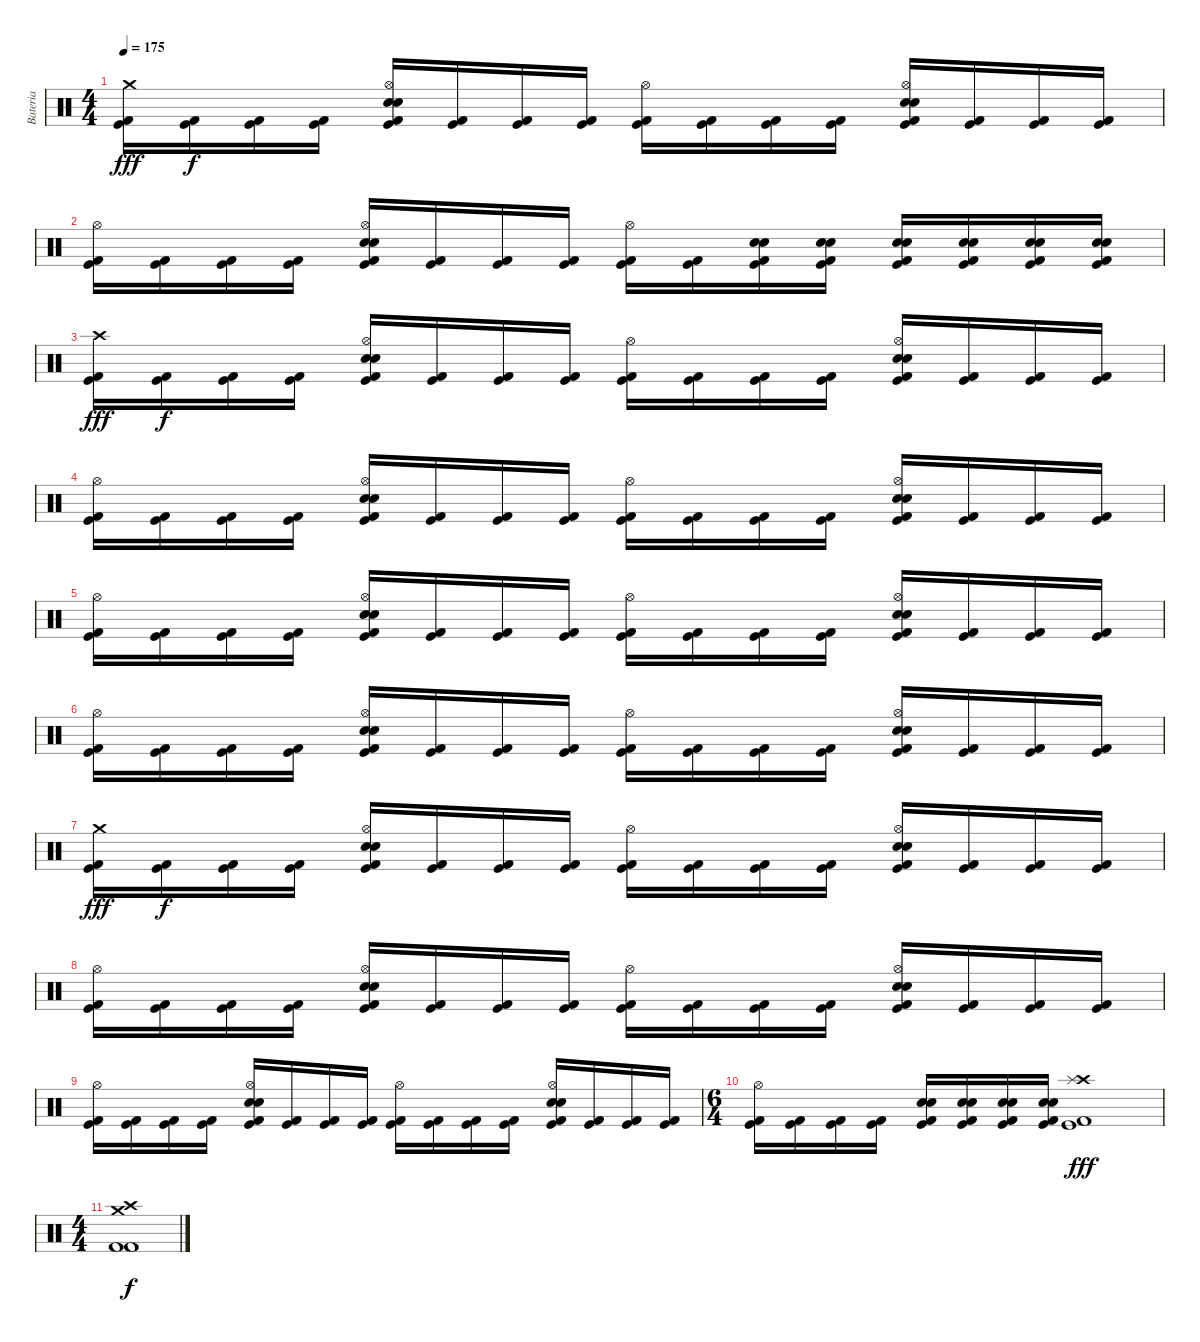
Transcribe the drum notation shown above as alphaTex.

\track ("Bateria" "Bateria") {instrument percussion}
\staff {score}
\articulation defaults
\ts (4 4)
\tempo 175
\clef neutral
\ks c
("Crash medium (hit)" "Kick (hit) 2" "Kick (hit)").16{dy fff} ("Kick (hit) 2" "Kick (hit)").16{dy f} ("Kick (hit) 2" "Kick (hit)").16 ("Kick (hit) 2" "Kick (hit)").16 ("Hi-Hat (open)" "Electric Snare (hit)" "Snare (hit) 2" "Kick (hit) 2" "Kick (hit)").16 ("Kick (hit) 2" "Kick (hit)").16 ("Kick (hit) 2" "Kick (hit)").16 ("Kick (hit) 2" "Kick (hit)").16 ("Hi-Hat (open)" "Kick (hit) 2" "Kick (hit)").16 ("Kick (hit) 2" "Kick (hit)").16 ("Kick (hit) 2" "Kick (hit)").16 ("Kick (hit) 2" "Kick (hit)").16 ("Hi-Hat (open)" "Electric Snare (hit)" "Snare (hit) 2" "Kick (hit) 2" "Kick (hit)").16 ("Kick (hit) 2" "Kick (hit)").16 ("Kick (hit) 2" "Kick (hit)").16 ("Kick (hit) 2" "Kick (hit)").16 |
("Hi-Hat (open)" "Kick (hit) 2" "Kick (hit)").16 ("Kick (hit) 2" "Kick (hit)").16 ("Kick (hit) 2" "Kick (hit)").16 ("Kick (hit) 2" "Kick (hit)").16 ("Hi-Hat (open)" "Electric Snare (hit)" "Snare (hit) 2" "Kick (hit) 2" "Kick (hit)").16 ("Kick (hit) 2" "Kick (hit)").16 ("Kick (hit) 2" "Kick (hit)").16 ("Kick (hit) 2" "Kick (hit)").16 ("Hi-Hat (open)" "Kick (hit) 2" "Kick (hit)").16 ("Kick (hit) 2" "Kick (hit)").16 ("Electric Snare (hit)" "Snare (hit) 2" "Kick (hit) 2" "Kick (hit)").16 ("Electric Snare (hit)" "Snare (hit) 2" "Kick (hit) 2" "Kick (hit)").16 ("Electric Snare (hit)" "Snare (hit) 2" "Kick (hit) 2" "Kick (hit)").16 ("Electric Snare (hit)" "Snare (hit) 2" "Kick (hit) 2" "Kick (hit)").16 ("Electric Snare (hit)" "Snare (hit) 2" "Kick (hit) 2" "Kick (hit)").16 ("Electric Snare (hit)" "Snare (hit) 2" "Kick (hit) 2" "Kick (hit)").16 |
("Crash high (hit)" "Kick (hit) 2" "Kick (hit)").16{dy fff} ("Kick (hit) 2" "Kick (hit)").16{dy f} ("Kick (hit) 2" "Kick (hit)").16 ("Kick (hit) 2" "Kick (hit)").16 ("Hi-Hat (open)" "Electric Snare (hit)" "Snare (hit) 2" "Kick (hit) 2" "Kick (hit)").16 ("Kick (hit) 2" "Kick (hit)").16 ("Kick (hit) 2" "Kick (hit)").16 ("Kick (hit) 2" "Kick (hit)").16 ("Hi-Hat (open)" "Kick (hit) 2" "Kick (hit)").16 ("Kick (hit) 2" "Kick (hit)").16 ("Kick (hit) 2" "Kick (hit)").16 ("Kick (hit) 2" "Kick (hit)").16 ("Hi-Hat (open)" "Electric Snare (hit)" "Snare (hit) 2" "Kick (hit) 2" "Kick (hit)").16 ("Kick (hit) 2" "Kick (hit)").16 ("Kick (hit) 2" "Kick (hit)").16 ("Kick (hit) 2" "Kick (hit)").16 |
("Hi-Hat (open)" "Kick (hit) 2" "Kick (hit)").16 ("Kick (hit) 2" "Kick (hit)").16 ("Kick (hit) 2" "Kick (hit)").16 ("Kick (hit) 2" "Kick (hit)").16 ("Hi-Hat (open)" "Electric Snare (hit)" "Snare (hit) 2" "Kick (hit) 2" "Kick (hit)").16 ("Kick (hit) 2" "Kick (hit)").16 ("Kick (hit) 2" "Kick (hit)").16 ("Kick (hit) 2" "Kick (hit)").16 ("Hi-Hat (open)" "Kick (hit) 2" "Kick (hit)").16 ("Kick (hit) 2" "Kick (hit)").16 ("Kick (hit) 2" "Kick (hit)").16 ("Kick (hit) 2" "Kick (hit)").16 ("Hi-Hat (open)" "Electric Snare (hit)" "Snare (hit) 2" "Kick (hit) 2" "Kick (hit)").16 ("Kick (hit) 2" "Kick (hit)").16 ("Kick (hit) 2" "Kick (hit)").16 ("Kick (hit) 2" "Kick (hit)").16 |
("Hi-Hat (open)" "Kick (hit) 2" "Kick (hit)").16 ("Kick (hit) 2" "Kick (hit)").16 ("Kick (hit) 2" "Kick (hit)").16 ("Kick (hit) 2" "Kick (hit)").16 ("Hi-Hat (open)" "Electric Snare (hit)" "Snare (hit) 2" "Kick (hit) 2" "Kick (hit)").16 ("Kick (hit) 2" "Kick (hit)").16 ("Kick (hit) 2" "Kick (hit)").16 ("Kick (hit) 2" "Kick (hit)").16 ("Hi-Hat (open)" "Kick (hit) 2" "Kick (hit)").16 ("Kick (hit) 2" "Kick (hit)").16 ("Kick (hit) 2" "Kick (hit)").16 ("Kick (hit) 2" "Kick (hit)").16 ("Hi-Hat (open)" "Electric Snare (hit)" "Snare (hit) 2" "Kick (hit) 2" "Kick (hit)").16 ("Kick (hit) 2" "Kick (hit)").16 ("Kick (hit) 2" "Kick (hit)").16 ("Kick (hit) 2" "Kick (hit)").16 |
("Hi-Hat (open)" "Kick (hit) 2" "Kick (hit)").16 ("Kick (hit) 2" "Kick (hit)").16 ("Kick (hit) 2" "Kick (hit)").16 ("Kick (hit) 2" "Kick (hit)").16 ("Hi-Hat (open)" "Electric Snare (hit)" "Snare (hit) 2" "Kick (hit) 2" "Kick (hit)").16 ("Kick (hit) 2" "Kick (hit)").16 ("Kick (hit) 2" "Kick (hit)").16 ("Kick (hit) 2" "Kick (hit)").16 ("Hi-Hat (open)" "Kick (hit) 2" "Kick (hit)").16 ("Kick (hit) 2" "Kick (hit)").16 ("Kick (hit) 2" "Kick (hit)").16 ("Kick (hit) 2" "Kick (hit)").16 ("Hi-Hat (open)" "Electric Snare (hit)" "Snare (hit) 2" "Kick (hit) 2" "Kick (hit)").16 ("Kick (hit) 2" "Kick (hit)").16 ("Kick (hit) 2" "Kick (hit)").16 ("Kick (hit) 2" "Kick (hit)").16 |
("Crash medium (hit)" "Kick (hit) 2" "Kick (hit)").16{dy fff} ("Kick (hit) 2" "Kick (hit)").16{dy f} ("Kick (hit) 2" "Kick (hit)").16 ("Kick (hit) 2" "Kick (hit)").16 ("Hi-Hat (open)" "Electric Snare (hit)" "Snare (hit) 2" "Kick (hit) 2" "Kick (hit)").16 ("Kick (hit) 2" "Kick (hit)").16 ("Kick (hit) 2" "Kick (hit)").16 ("Kick (hit) 2" "Kick (hit)").16 ("Hi-Hat (open)" "Kick (hit) 2" "Kick (hit)").16 ("Kick (hit) 2" "Kick (hit)").16 ("Kick (hit) 2" "Kick (hit)").16 ("Kick (hit) 2" "Kick (hit)").16 ("Hi-Hat (open)" "Electric Snare (hit)" "Snare (hit) 2" "Kick (hit) 2" "Kick (hit)").16 ("Kick (hit) 2" "Kick (hit)").16 ("Kick (hit) 2" "Kick (hit)").16 ("Kick (hit) 2" "Kick (hit)").16 |
("Hi-Hat (open)" "Kick (hit) 2" "Kick (hit)").16 ("Kick (hit) 2" "Kick (hit)").16 ("Kick (hit) 2" "Kick (hit)").16 ("Kick (hit) 2" "Kick (hit)").16 ("Hi-Hat (open)" "Electric Snare (hit)" "Snare (hit) 2" "Kick (hit) 2" "Kick (hit)").16 ("Kick (hit) 2" "Kick (hit)").16 ("Kick (hit) 2" "Kick (hit)").16 ("Kick (hit) 2" "Kick (hit)").16 ("Hi-Hat (open)" "Kick (hit) 2" "Kick (hit)").16 ("Kick (hit) 2" "Kick (hit)").16 ("Kick (hit) 2" "Kick (hit)").16 ("Kick (hit) 2" "Kick (hit)").16 ("Hi-Hat (open)" "Electric Snare (hit)" "Snare (hit) 2" "Kick (hit) 2" "Kick (hit)").16 ("Kick (hit) 2" "Kick (hit)").16 ("Kick (hit) 2" "Kick (hit)").16 ("Kick (hit) 2" "Kick (hit)").16 |
("Hi-Hat (open)" "Kick (hit) 2" "Kick (hit)").16 ("Kick (hit) 2" "Kick (hit)").16 ("Kick (hit) 2" "Kick (hit)").16 ("Kick (hit) 2" "Kick (hit)").16 ("Hi-Hat (open)" "Electric Snare (hit)" "Snare (hit) 2" "Kick (hit) 2" "Kick (hit)").16 ("Kick (hit) 2" "Kick (hit)").16 ("Kick (hit) 2" "Kick (hit)").16 ("Kick (hit) 2" "Kick (hit)").16 ("Hi-Hat (open)" "Kick (hit) 2" "Kick (hit)").16 ("Kick (hit) 2" "Kick (hit)").16 ("Kick (hit) 2" "Kick (hit)").16 ("Kick (hit) 2" "Kick (hit)").16 ("Hi-Hat (open)" "Electric Snare (hit)" "Snare (hit) 2" "Kick (hit) 2" "Kick (hit)").16 ("Kick (hit) 2" "Kick (hit)").16 ("Kick (hit) 2" "Kick (hit)").16 ("Kick (hit) 2" "Kick (hit)").16 |
\ts (6 4)
("Hi-Hat (open)" "Kick (hit) 2" "Kick (hit)").16 ("Kick (hit) 2" "Kick (hit)").16 ("Kick (hit) 2" "Kick (hit)").16 ("Kick (hit) 2" "Kick (hit)").16 ("Electric Snare (hit)" "Snare (hit) 2" "Kick (hit) 2" "Kick (hit)").16 ("Electric Snare (hit)" "Snare (hit) 2" "Kick (hit) 2" "Kick (hit)").16 ("Electric Snare (hit)" "Snare (hit) 2" "Kick (hit) 2" "Kick (hit)").16 ("Electric Snare (hit)" "Snare (hit) 2" "Kick (hit) 2" "Kick (hit)").16 ("Crash high (hit)" "Splash (hit)" "Kick (hit) 2" "Kick (hit)").1{dy fff} |
\ts (4 4)
("Crash high (hit)" "Crash medium (hit)" "Kick (hit) 2" "Kick (hit) 2").1{dy f}
